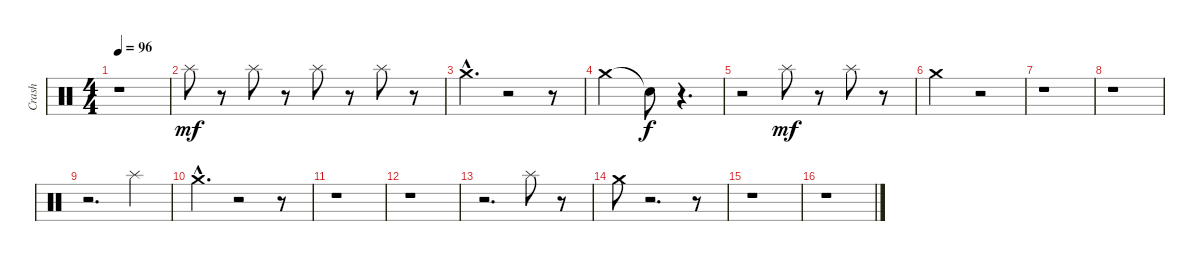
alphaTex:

\track ("Crash" "Crash") {instrument percussion}
\staff {score}
\articulation defaults
\ts (4 4)
\tempo 96
\clef neutral
\ks c
r.1{dy mf} |
"Splash (hit)".8 r.8 "Splash (hit)".8 r.8 "Splash (hit)".8 r.8 "Splash (hit)".8 r.8 |
"Crash medium (hit)"{hac}.4{d} r.2 r.8 |
"Crash medium (hit)".2 "Snare (hit)"{t}.8{dy f} r.4{d} |
r.2 "Splash (hit)".8{dy mf} r.8 "Splash (hit)".8 r.8 |
"Crash medium (hit)".2 r.2 |
r.1 |
r.1 |
r.2{d} "Splash (hit)".4 |
"Crash medium (hit)"{hac}.4{d} r.2 r.8 |
r.1 |
r.1 |
r.2{d} "Splash (hit)".8 r.8 |
"Crash medium (hit)".8 r.2{d} r.8 |
r.1 |
r.1
